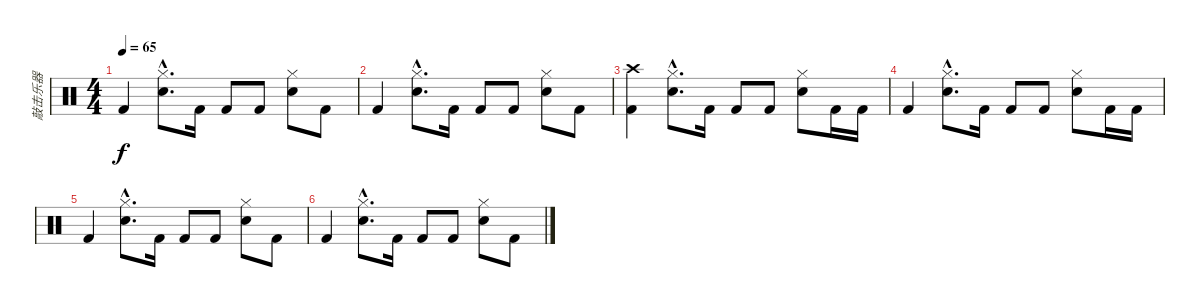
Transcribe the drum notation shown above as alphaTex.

\track ("敲击乐器" "敲击乐器") {instrument percussion}
\staff {score}
\articulation defaults
\ts (4 4)
\tempo 65
\clef neutral
\ks c "Kick (hit) 2".4{dy f}
("Hi-Hat (closed)"{hac} "Snare (hit) 2"{hac}).8{d} "Kick (hit) 2".16 "Kick (hit) 2".8 "Kick (hit) 2".8 ("Hi-Hat (closed)" "Snare (hit) 2").8 "Kick (hit) 2".8 |
"Kick (hit) 2".4 ("Hi-Hat (closed)"{hac} "Snare (hit) 2"{hac}).8{d} "Kick (hit) 2".16 "Kick (hit) 2".8 "Kick (hit) 2".8 ("Hi-Hat (closed)" "Snare (hit) 2").8 "Kick (hit) 2".8 |
("Crash high (hit)" "Kick (hit) 2").4 ("Hi-Hat (closed)"{hac} "Snare (hit) 2"{hac}).8{d} "Kick (hit) 2".16 "Kick (hit) 2".8 "Kick (hit) 2".8 ("Hi-Hat (closed)" "Snare (hit) 2").8 "Kick (hit) 2".16 "Kick (hit) 2".16 |
"Kick (hit) 2".4 ("Hi-Hat (closed)"{hac} "Snare (hit) 2"{hac}).8{d} "Kick (hit) 2".16 "Kick (hit) 2".8 "Kick (hit) 2".8 ("Hi-Hat (closed)" "Snare (hit) 2").8 "Kick (hit) 2".16 "Kick (hit) 2".16 |
"Kick (hit) 2".4 ("Hi-Hat (closed)"{hac} "Snare (hit) 2"{hac}).8{d} "Kick (hit) 2".16 "Kick (hit) 2".8 "Kick (hit) 2".8 ("Hi-Hat (closed)" "Snare (hit) 2").8 "Kick (hit) 2".8 |
"Kick (hit) 2".4 ("Hi-Hat (closed)"{hac} "Snare (hit) 2"{hac}).8{d} "Kick (hit) 2".16 "Kick (hit) 2".8 "Kick (hit) 2".8 ("Hi-Hat (closed)" "Snare (hit) 2").8 "Kick (hit) 2".8
